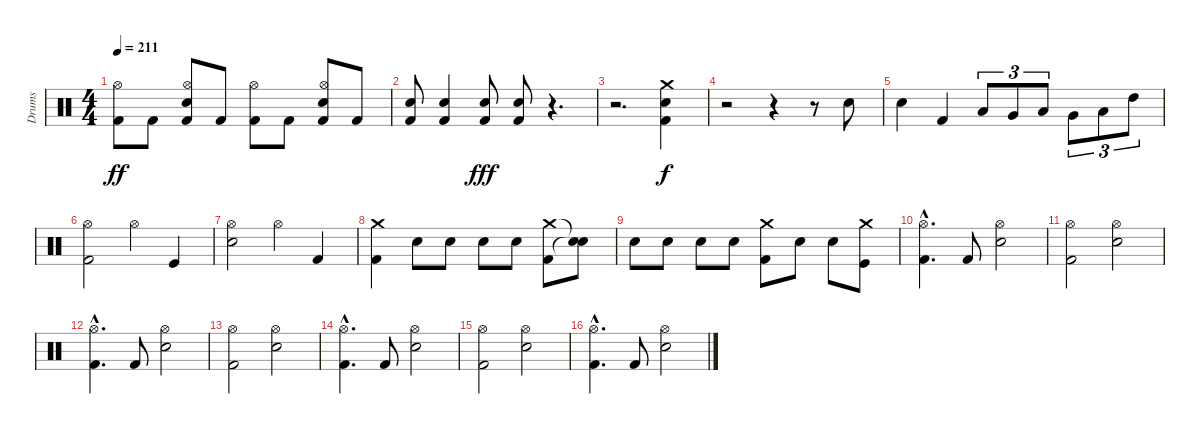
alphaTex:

\track ("Drums" "Drums") {instrument percussion}
\staff {score}
\articulation defaults
\ts (4 4)
\tempo 211
\clef neutral
\ks c
("Kick (hit) 2" "Hi-Hat (open)").8{dy ff} "Kick (hit) 2".8 ("Kick (hit) 2" "Snare (hit) 2" "Hi-Hat (open)").8 "Kick (hit) 2".8 ("Kick (hit) 2" "Hi-Hat (open)").8 "Kick (hit) 2".8 ("Kick (hit) 2" "Snare (hit) 2" "Hi-Hat (open)").8 "Kick (hit) 2".8 |
("Kick (hit) 2" "Snare (hit) 2").8 ("Kick (hit) 2" "Snare (hit) 2").4 ("Kick (hit) 2" "Snare (hit) 2").8{dy fff} ("Kick (hit) 2" "Snare (hit) 2").8 r.4{d} |
r.2{d} ("Kick (hit) 2" "Snare (hit) 2" "Crash medium (hit)").4{dy f} |
r.2 r.4 r.8 "Snare (hit) 2".8 |
"Snare (hit) 2".4 "Kick (hit) 2".4 "Low Tom (hit)".8{tu (3 2)} "Very Low Tom (hit)".8{tu (3 2)} "Low Tom (hit)".8{tu (3 2)} "Very Low Tom (hit)".8{tu (3 2)} "Low Tom (hit)".8{tu (3 2)} "High Tom (hit)".8{tu (3 2)} |
("Hi-Hat (open)" "Kick (hit) 2").2 "Hi-Hat (open)".4 "Kick (hit)".4 |
("Hi-Hat (open)" "Snare (hit) 2").2 "Hi-Hat (open)".4 "Kick (hit) 2".4 |
("Kick (hit) 2" "Crash medium (hit)").4 "Snare (hit) 2".8 "Snare (hit) 2".8 "Snare (hit) 2".8 "Snare (hit) 2".8 ("Kick (hit) 2" "Crash medium (hit)").8 ("Snare (hit)"{t} "Snare (hit)"{t}).8 |
"Snare (hit) 2".8 "Snare (hit) 2".8 "Snare (hit) 2".8 "Snare (hit) 2".8 ("Kick (hit) 2" "Crash medium (hit)").8 "Snare (hit) 2".8 "Snare (hit) 2".8 ("Kick (hit)" "Crash medium (hit)").8 |
("Hi-Hat (open)"{hac} "Kick (hit) 2"{hac}).4{d} "Kick (hit) 2".8 ("Hi-Hat (open)" "Snare (hit) 2").2 |
("Hi-Hat (open)" "Kick (hit) 2").2 ("Hi-Hat (open)" "Snare (hit) 2").2 |
("Hi-Hat (open)"{hac} "Kick (hit) 2"{hac}).4{d} "Kick (hit) 2".8 ("Hi-Hat (open)" "Snare (hit) 2").2 |
("Hi-Hat (open)" "Kick (hit) 2").2 ("Hi-Hat (open)" "Snare (hit) 2").2 |
("Hi-Hat (open)"{hac} "Kick (hit) 2"{hac}).4{d} "Kick (hit) 2".8 ("Hi-Hat (open)" "Snare (hit) 2").2 |
("Hi-Hat (open)" "Kick (hit) 2").2 ("Hi-Hat (open)" "Snare (hit) 2").2 |
("Hi-Hat (open)"{hac} "Kick (hit) 2"{hac}).4{d} "Kick (hit) 2".8 ("Hi-Hat (open)" "Snare (hit) 2").2
